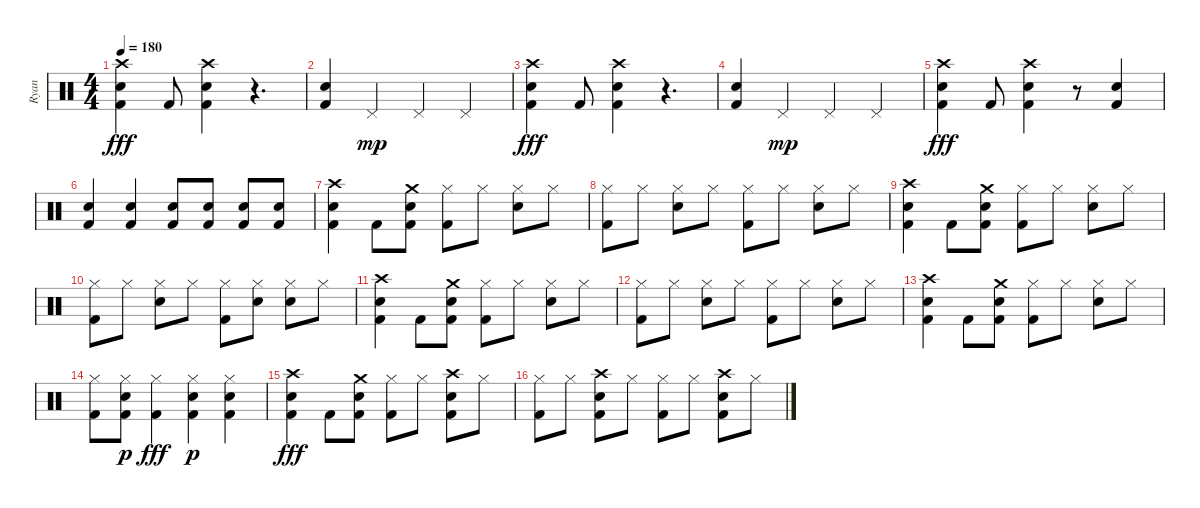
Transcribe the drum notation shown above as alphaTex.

\track ("Ryan" "Ryan") {instrument percussion}
\staff {score}
\articulation defaults
\ts (4 4)
\tempo 180
\clef neutral
\ks c
("Kick (hit) 2" "Snare (hit) 2" "Crash high (hit)").4{dy fff} "Kick (hit) 2".8 ("Kick (hit) 2" "Snare (hit) 2" "Crash high (hit)").4 r.4{d} |
("Kick (hit) 2" "Snare (hit) 2").4 "Pedal Hi-Hat (hit)".4{dy mp} "Pedal Hi-Hat (hit)".4 "Pedal Hi-Hat (hit)".4 |
("Kick (hit) 2" "Snare (hit) 2" "Crash high (hit)").4{dy fff} "Kick (hit) 2".8 ("Kick (hit) 2" "Snare (hit) 2" "Crash high (hit)").4 r.4{d} |
("Kick (hit) 2" "Snare (hit) 2").4 "Pedal Hi-Hat (hit)".4{dy mp} "Pedal Hi-Hat (hit)".4 "Pedal Hi-Hat (hit)".4 |
("Kick (hit) 2" "Snare (hit) 2" "Crash high (hit)").4{dy fff} "Kick (hit) 2".8 ("Kick (hit) 2" "Snare (hit) 2" "Crash high (hit)").4 r.8 ("Kick (hit) 2" "Snare (hit) 2").4 |
("Kick (hit) 2" "Snare (hit) 2").4 ("Kick (hit) 2" "Snare (hit) 2").4 ("Kick (hit) 2" "Snare (hit) 2").8 ("Kick (hit) 2" "Snare (hit) 2").8 ("Kick (hit) 2" "Snare (hit) 2").8 ("Kick (hit) 2" "Snare (hit) 2").8 |
("Kick (hit) 2" "Snare (hit) 2" "Crash high (hit)").4 "Kick (hit) 2".8 ("Kick (hit) 2" "Snare (hit) 2" "Crash medium (hit)").8 ("Kick (hit) 2" "Hi-Hat (closed)").8 "Hi-Hat (closed)".8 ("Snare (hit) 2" "Hi-Hat (closed)").8 "Hi-Hat (closed)".8 |
("Kick (hit) 2" "Hi-Hat (closed)").8 "Hi-Hat (closed)".8 ("Snare (hit) 2" "Hi-Hat (closed)").8 "Hi-Hat (closed)".8 ("Kick (hit) 2" "Hi-Hat (closed)").8 "Hi-Hat (closed)".8 ("Snare (hit) 2" "Hi-Hat (closed)").8 "Hi-Hat (closed)".8 |
("Kick (hit) 2" "Snare (hit) 2" "Crash high (hit)").4 "Kick (hit) 2".8 ("Kick (hit) 2" "Snare (hit) 2" "Crash medium (hit)").8 ("Kick (hit) 2" "Hi-Hat (closed)").8 "Hi-Hat (closed)".8 ("Snare (hit) 2" "Hi-Hat (closed)").8 "Hi-Hat (closed)".8 |
("Kick (hit) 2" "Hi-Hat (closed)").8 "Hi-Hat (closed)".8 ("Snare (hit) 2" "Hi-Hat (closed)").8 "Hi-Hat (closed)".8 ("Kick (hit) 2" "Hi-Hat (closed)").8 ("Snare (hit) 2" "Hi-Hat (closed)").8 ("Snare (hit) 2" "Hi-Hat (closed)").8 "Hi-Hat (closed)".8 |
("Kick (hit) 2" "Snare (hit) 2" "Crash high (hit)").4 "Kick (hit) 2".8 ("Kick (hit) 2" "Snare (hit) 2" "Crash medium (hit)").8 ("Kick (hit) 2" "Hi-Hat (closed)").8 "Hi-Hat (closed)".8 ("Snare (hit) 2" "Hi-Hat (closed)").8 "Hi-Hat (closed)".8 |
("Kick (hit) 2" "Hi-Hat (closed)").8 "Hi-Hat (closed)".8 ("Snare (hit) 2" "Hi-Hat (closed)").8 "Hi-Hat (closed)".8 ("Kick (hit) 2" "Hi-Hat (closed)").8 "Hi-Hat (closed)".8 ("Snare (hit) 2" "Hi-Hat (closed)").8 "Hi-Hat (closed)".8 |
("Kick (hit) 2" "Snare (hit) 2" "Crash high (hit)").4 "Kick (hit) 2".8 ("Kick (hit) 2" "Snare (hit) 2" "Crash medium (hit)").8 ("Kick (hit) 2" "Hi-Hat (closed)").8 "Hi-Hat (closed)".8 ("Snare (hit) 2" "Hi-Hat (closed)").8 "Hi-Hat (closed)".8 |
("Kick (hit) 2" "Hi-Hat (closed)").8 ("Snare (hit) 2" "Hi-Hat (closed)" "Kick (hit) 2").8{dy p} ("Kick (hit) 2" "Hi-Hat (closed)").4{dy fff} ("Snare (hit) 2" "Hi-Hat (closed)" "Kick (hit) 2").4{dy p} ("Snare (hit) 2" "Hi-Hat (closed)" "Kick (hit) 2").4 |
("Kick (hit) 2" "Snare (hit) 2" "Crash high (hit)").4{dy fff} "Kick (hit) 2".8 ("Kick (hit) 2" "Snare (hit) 2" "Crash medium (hit)").8 ("Kick (hit) 2" "Hi-Hat (closed)").8 "Hi-Hat (closed)".8 ("Snare (hit) 2" "Crash high (hit)" "Kick (hit) 2").8 "Hi-Hat (closed)".8 |
("Kick (hit) 2" "Hi-Hat (closed)").8 "Hi-Hat (closed)".8 ("Snare (hit) 2" "Crash high (hit)" "Kick (hit) 2").8 "Hi-Hat (closed)".8 ("Kick (hit) 2" "Hi-Hat (closed)").8 "Hi-Hat (closed)".8 ("Snare (hit) 2" "Crash high (hit)" "Kick (hit) 2").8 "Hi-Hat (closed)".8
